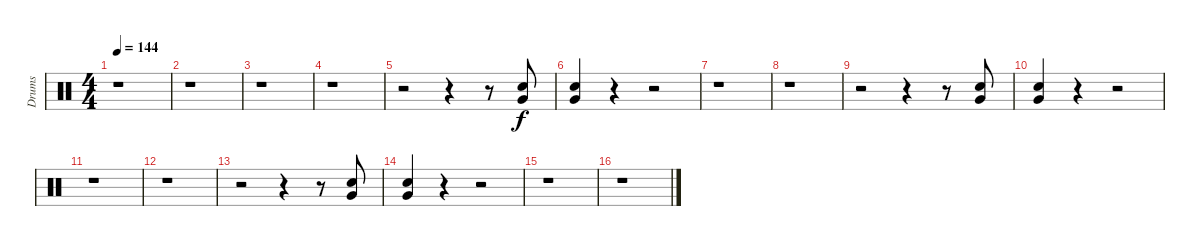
\track ("Drums" "Drums") {instrument percussion}
\staff {score}
\articulation defaults
\ts (4 4)
\tempo 144
\clef neutral
\ks c
r.1{dy f} |
r.1 |
r.1 |
r.1 |
r.2 r.4 r.8 ("Snare (hit) 2" "Very Low Tom (hit)").8 |
("Snare (hit) 2" "Very Low Tom (hit)").4 r.4 r.2 |
r.1 |
r.1 |
r.2 r.4 r.8 ("Snare (hit) 2" "Very Low Tom (hit)").8 |
("Snare (hit) 2" "Very Low Tom (hit)").4 r.4 r.2 |
r.1 |
r.1 |
r.2 r.4 r.8 ("Snare (hit) 2" "Very Low Tom (hit)").8 |
("Snare (hit) 2" "Very Low Tom (hit)").4 r.4 r.2 |
r.1 |
r.1
